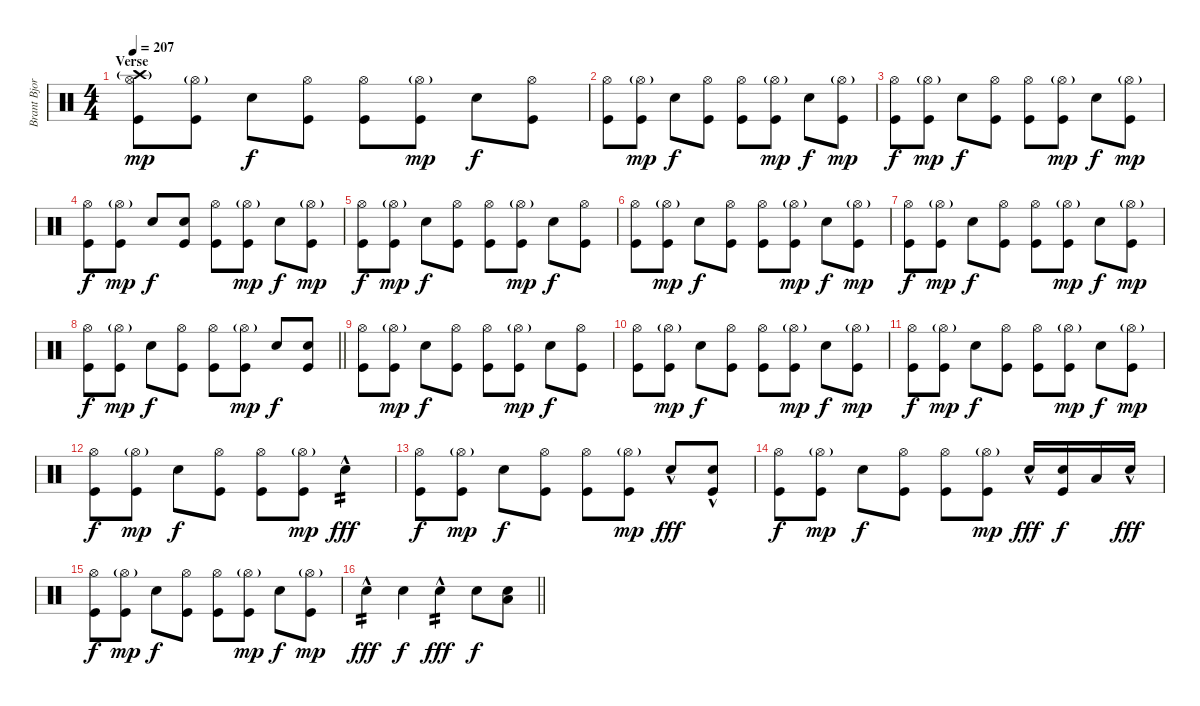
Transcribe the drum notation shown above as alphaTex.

\track ("Brant Bjork - Drums" "Brant Bjor") {instrument percussion}
\staff {score}
\articulation defaults
\ts (4 4)
\section ("" "Verse")
\tempo 207
\clef neutral
\ks c
("Hi-Hat (open)" "Crash high (hit)"{g} "Kick (hit)").8{dy mp} ("Hi-Hat (open)"{g} "Kick (hit)").8 "Snare (hit) 2".8{dy f} ("Hi-Hat (open)" "Kick (hit)").8 ("Hi-Hat (open)" "Kick (hit)").8 ("Hi-Hat (open)"{g} "Kick (hit)").8{dy mp} "Snare (hit) 2".8{dy f} ("Hi-Hat (open)" "Kick (hit)").8 |
("Hi-Hat (open)" "Kick (hit)").8 ("Hi-Hat (open)"{g} "Kick (hit)").8{dy mp} "Snare (hit) 2".8{dy f} ("Hi-Hat (open)" "Kick (hit)").8 ("Hi-Hat (open)" "Kick (hit)").8 ("Hi-Hat (open)"{g} "Kick (hit)").8{dy mp} "Snare (hit) 2".8{dy f} ("Hi-Hat (open)"{g} "Kick (hit)").8{dy mp} |
("Hi-Hat (open)" "Kick (hit)").8{dy f} ("Hi-Hat (open)"{g} "Kick (hit)").8{dy mp} "Snare (hit) 2".8{dy f} ("Hi-Hat (open)" "Kick (hit)").8 ("Hi-Hat (open)" "Kick (hit)").8 ("Hi-Hat (open)"{g} "Kick (hit)").8{dy mp} "Snare (hit) 2".8{dy f} ("Hi-Hat (open)"{g} "Kick (hit)").8{dy mp} |
("Hi-Hat (open)" "Kick (hit)").8{dy f} ("Hi-Hat (open)"{g} "Kick (hit)").8{dy mp} "Snare (hit) 2".8{dy f} ("Snare (hit) 2" "Kick (hit)").8 ("Hi-Hat (open)" "Kick (hit)").8 ("Hi-Hat (open)"{g} "Kick (hit)").8{dy mp} "Snare (hit) 2".8{dy f} ("Hi-Hat (open)"{g} "Kick (hit)").8{dy mp} |
("Hi-Hat (open)" "Kick (hit)").8{dy f} ("Hi-Hat (open)"{g} "Kick (hit)").8{dy mp} "Snare (hit) 2".8{dy f} ("Hi-Hat (open)" "Kick (hit)").8 ("Hi-Hat (open)" "Kick (hit)").8 ("Hi-Hat (open)"{g} "Kick (hit)").8{dy mp} "Snare (hit) 2".8{dy f} ("Hi-Hat (open)" "Kick (hit)").8 |
("Hi-Hat (open)" "Kick (hit)").8 ("Hi-Hat (open)"{g} "Kick (hit)").8{dy mp} "Snare (hit) 2".8{dy f} ("Hi-Hat (open)" "Kick (hit)").8 ("Hi-Hat (open)" "Kick (hit)").8 ("Hi-Hat (open)"{g} "Kick (hit)").8{dy mp} "Snare (hit) 2".8{dy f} ("Hi-Hat (open)"{g} "Kick (hit)").8{dy mp} |
("Hi-Hat (open)" "Kick (hit)").8{dy f} ("Hi-Hat (open)"{g} "Kick (hit)").8{dy mp} "Snare (hit) 2".8{dy f} ("Hi-Hat (open)" "Kick (hit)").8 ("Hi-Hat (open)" "Kick (hit)").8 ("Hi-Hat (open)"{g} "Kick (hit)").8{dy mp} "Snare (hit) 2".8{dy f} ("Hi-Hat (open)"{g} "Kick (hit)").8{dy mp} |
\barLineRight lightlight
("Hi-Hat (open)" "Kick (hit)").8{dy f} ("Hi-Hat (open)"{g} "Kick (hit)").8{dy mp} "Snare (hit) 2".8{dy f} ("Hi-Hat (open)" "Kick (hit)").8 ("Hi-Hat (open)" "Kick (hit)").8 ("Hi-Hat (open)"{g} "Kick (hit)").8{dy mp} "Snare (hit) 2".8{dy f} ("Snare (hit) 2" "Kick (hit)").8 |
("Hi-Hat (open)" "Kick (hit)").8 ("Hi-Hat (open)"{g} "Kick (hit)").8{dy mp} "Snare (hit) 2".8{dy f} ("Hi-Hat (open)" "Kick (hit)").8 ("Hi-Hat (open)" "Kick (hit)").8 ("Hi-Hat (open)"{g} "Kick (hit)").8{dy mp} "Snare (hit) 2".8{dy f} ("Hi-Hat (open)" "Kick (hit)").8 |
("Hi-Hat (open)" "Kick (hit)").8 ("Hi-Hat (open)"{g} "Kick (hit)").8{dy mp} "Snare (hit) 2".8{dy f} ("Hi-Hat (open)" "Kick (hit)").8 ("Hi-Hat (open)" "Kick (hit)").8 ("Hi-Hat (open)"{g} "Kick (hit)").8{dy mp} "Snare (hit) 2".8{dy f} ("Hi-Hat (open)"{g} "Kick (hit)").8{dy mp} |
("Hi-Hat (open)" "Kick (hit)").8{dy f} ("Hi-Hat (open)"{g} "Kick (hit)").8{dy mp} "Snare (hit) 2".8{dy f} ("Hi-Hat (open)" "Kick (hit)").8 ("Hi-Hat (open)" "Kick (hit)").8 ("Hi-Hat (open)"{g} "Kick (hit)").8{dy mp} "Snare (hit) 2".8{dy f} ("Hi-Hat (open)"{g} "Kick (hit)").8{dy mp} |
("Hi-Hat (open)" "Kick (hit)").8{dy f} ("Hi-Hat (open)"{g} "Kick (hit)").8{dy mp} "Snare (hit) 2".8{dy f} ("Hi-Hat (open)" "Kick (hit)").8 ("Hi-Hat (open)" "Kick (hit)").8 ("Hi-Hat (open)"{g} "Kick (hit)").8{dy mp} "Snare (hit) 2"{hac}.4{tp 2 dy fff} |
("Hi-Hat (open)" "Kick (hit)").8{dy f} ("Hi-Hat (open)"{g} "Kick (hit)").8{dy mp} "Snare (hit) 2".8{dy f} ("Hi-Hat (open)" "Kick (hit)").8 ("Hi-Hat (open)" "Kick (hit)").8 ("Hi-Hat (open)"{g} "Kick (hit)").8{dy mp} "Snare (hit) 2"{hac}.8{dy fff} ("Snare (hit) 2"{hac} "Kick (hit)").8 |
("Hi-Hat (open)" "Kick (hit)").8{dy f} ("Hi-Hat (open)"{g} "Kick (hit)").8{dy mp} "Snare (hit) 2".8{dy f} ("Hi-Hat (open)" "Kick (hit)").8 ("Hi-Hat (open)" "Kick (hit)").8 ("Hi-Hat (open)"{g} "Kick (hit)").8{dy mp} "Snare (hit) 2"{hac}.16{dy fff} ("Snare (hit) 2" "Kick (hit)").16{dy f} "Low Tom (hit)".16 "Snare (hit) 2"{hac}.16{dy fff} |
("Hi-Hat (open)" "Kick (hit)").8{dy f} ("Hi-Hat (open)"{g} "Kick (hit)").8{dy mp} "Snare (hit) 2".8{dy f} ("Hi-Hat (open)" "Kick (hit)").8 ("Hi-Hat (open)" "Kick (hit)").8 ("Hi-Hat (open)"{g} "Kick (hit)").8{dy mp} "Snare (hit) 2".8{dy f} ("Hi-Hat (open)"{g} "Kick (hit)").8{dy mp} |
\barLineRight lightlight "Snare (hit) 2"{hac}.4{tp 2 dy fff} "Snare (hit) 2".4{dy f} "Snare (hit) 2"{hac}.4{tp 2 dy fff} "Snare (hit) 2".8{dy f}
("Snare (hit) 2" "Low Tom (hit)").8
